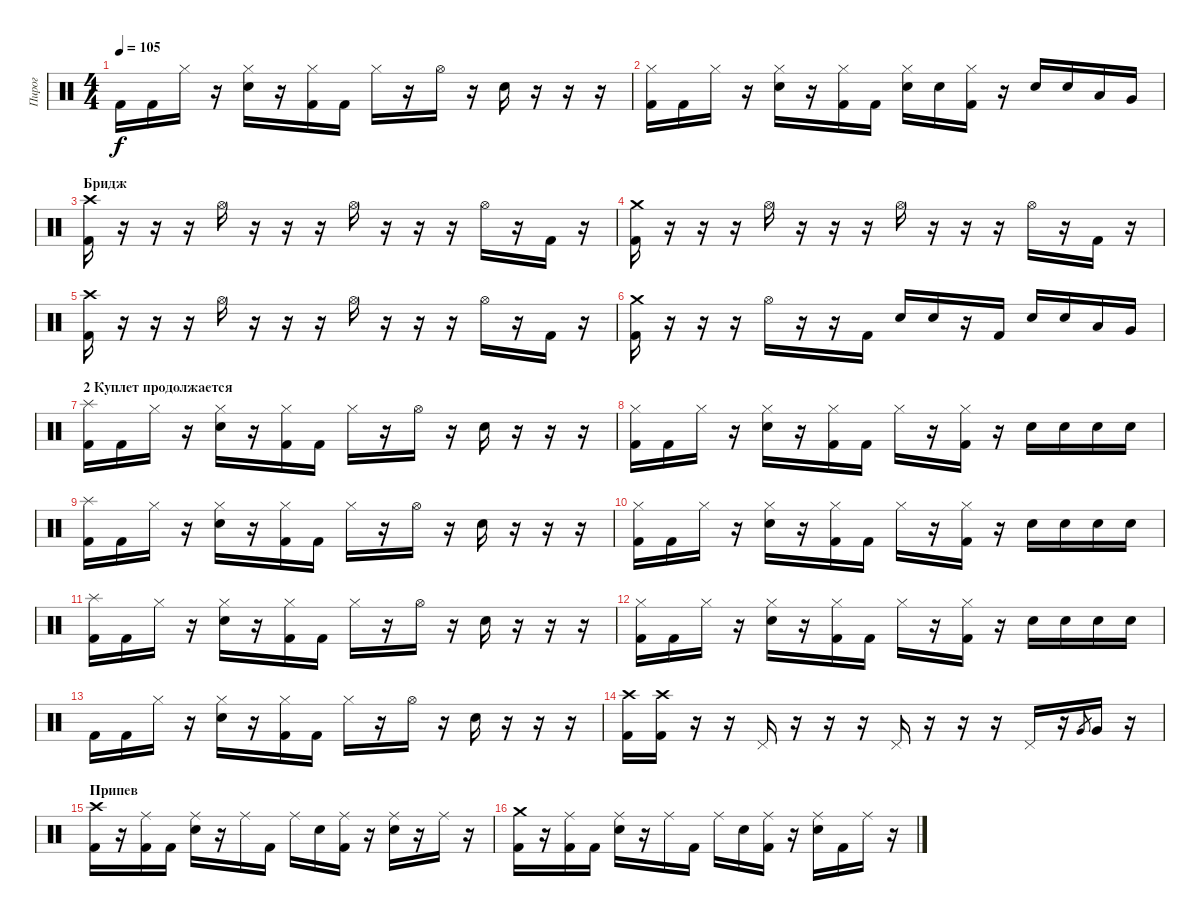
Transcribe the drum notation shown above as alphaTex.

\track ("Пирог" "Пирог") {instrument percussion}
\staff {score}
\articulation defaults
\ts (4 4)
\tempo 105
\clef neutral
\ks c "Kick (hit) 2".16{dy f} "Kick (hit) 2".16 "Hi-Hat (closed)".16
r.16 ("Hi-Hat (closed)" "Electric Snare (hit)").16 r.16 ("Hi-Hat (closed)" "Kick (hit) 2").16 "Kick (hit) 2".16 "Hi-Hat (closed)".16 r.16 "Hi-Hat (open)".16 r.16 "Electric Snare (hit)".16 r.16 r.16 r.16 |
("Hi-Hat (closed)" "Kick (hit) 2").16 "Kick (hit) 2".16 "Hi-Hat (closed)".16 r.16 ("Hi-Hat (closed)" "Electric Snare (hit)").16 r.16 ("Hi-Hat (closed)" "Kick (hit) 2").16 "Kick (hit) 2".16 ("Hi-Hat (closed)" "Electric Snare (hit)").16 "Electric Snare (hit)".16 ("Hi-Hat (closed)" "Kick (hit) 2").16 r.16 "Electric Snare (hit)".16 "Electric Snare (hit)".16 "Low Tom (hit)".16 "Very Low Tom (hit)".16 |
\section ("" "Бридж")
("Crash high (hit)" "Kick (hit) 2").16 r.16 r.16 r.16 "Hi-Hat (open)".16 r.16 r.16 r.16 "Hi-Hat (open)".16 r.16 r.16 r.16 "Hi-Hat (open)".16 r.16 "Kick (hit) 2".16 r.16 |
("Crash medium (hit)" "Kick (hit) 2").16 r.16 r.16 r.16 "Hi-Hat (open)".16 r.16 r.16 r.16 "Hi-Hat (open)".16 r.16 r.16 r.16 "Hi-Hat (open)".16 r.16 "Kick (hit) 2".16 r.16 |
("Crash high (hit)" "Kick (hit) 2").16 r.16 r.16 r.16 "Hi-Hat (open)".16 r.16 r.16 r.16 "Hi-Hat (open)".16 r.16 r.16 r.16 "Hi-Hat (open)".16 r.16 "Kick (hit) 2".16 r.16 |
("Crash medium (hit)" "Kick (hit) 2").16 r.16 r.16 r.16 "Hi-Hat (open)".16 r.16 r.16 "Kick (hit) 2".16 "Electric Snare (hit)".16 "Electric Snare (hit)".16 r.16 "Kick (hit) 2".16 "Electric Snare (hit)".16 "Electric Snare (hit)".16 "Low Tom (hit)".16 "Very Low Tom (hit)".16 |
\section ("" "2 Куплет продолжается")
("Splash (hit)" "Kick (hit) 2").16 "Kick (hit) 2".16 "Hi-Hat (closed)".16 r.16 ("Hi-Hat (closed)" "Electric Snare (hit)").16 r.16 ("Hi-Hat (closed)" "Kick (hit) 2").16 "Kick (hit) 2".16 "Hi-Hat (closed)".16 r.16 "Hi-Hat (open)".16 r.16 "Electric Snare (hit)".16 r.16 r.16 r.16 |
("Hi-Hat (closed)" "Kick (hit) 2").16 "Kick (hit) 2".16 "Hi-Hat (closed)".16 r.16 ("Hi-Hat (closed)" "Electric Snare (hit)").16 r.16 ("Hi-Hat (closed)" "Kick (hit) 2").16 "Kick (hit) 2".16 "Hi-Hat (closed)".16 r.16 ("Hi-Hat (closed)" "Kick (hit) 2").16 r.16 "Electric Snare (hit)".16 "Electric Snare (hit)".16 "Electric Snare (hit)".16 "Electric Snare (hit)".16 |
("Splash (hit)" "Kick (hit) 2").16 "Kick (hit) 2".16 "Hi-Hat (closed)".16 r.16 ("Hi-Hat (closed)" "Electric Snare (hit)").16 r.16 ("Hi-Hat (closed)" "Kick (hit) 2").16 "Kick (hit) 2".16 "Hi-Hat (closed)".16 r.16 "Hi-Hat (open)".16 r.16 "Electric Snare (hit)".16 r.16 r.16 r.16 |
("Hi-Hat (closed)" "Kick (hit) 2").16 "Kick (hit) 2".16 "Hi-Hat (closed)".16 r.16 ("Hi-Hat (closed)" "Electric Snare (hit)").16 r.16 ("Hi-Hat (closed)" "Kick (hit) 2").16 "Kick (hit) 2".16 "Hi-Hat (closed)".16 r.16 ("Hi-Hat (closed)" "Kick (hit) 2").16 r.16 "Electric Snare (hit)".16 "Electric Snare (hit)".16 "Electric Snare (hit)".16 "Electric Snare (hit)".16 |
("Splash (hit)" "Kick (hit) 2").16 "Kick (hit) 2".16 "Hi-Hat (closed)".16 r.16 ("Hi-Hat (closed)" "Electric Snare (hit)").16 r.16 ("Hi-Hat (closed)" "Kick (hit) 2").16 "Kick (hit) 2".16 "Hi-Hat (closed)".16 r.16 "Hi-Hat (open)".16 r.16 "Electric Snare (hit)".16 r.16 r.16 r.16 |
("Hi-Hat (closed)" "Kick (hit) 2").16 "Kick (hit) 2".16 "Hi-Hat (closed)".16 r.16 ("Hi-Hat (closed)" "Electric Snare (hit)").16 r.16 ("Hi-Hat (closed)" "Kick (hit) 2").16 "Kick (hit) 2".16 "Hi-Hat (closed)".16 r.16 ("Hi-Hat (closed)" "Kick (hit) 2").16 r.16 "Electric Snare (hit)".16 "Electric Snare (hit)".16 "Electric Snare (hit)".16 "Electric Snare (hit)".16 |
"Kick (hit) 2".16 "Kick (hit) 2".16 "Hi-Hat (closed)".16 r.16 ("Hi-Hat (closed)" "Electric Snare (hit)").16 r.16 ("Hi-Hat (closed)" "Kick (hit) 2").16 "Kick (hit) 2".16 "Hi-Hat (closed)".16 r.16 "Hi-Hat (open)".16 r.16 "Electric Snare (hit)".16 r.16 r.16 r.16 |
("Crash high (hit)" "Kick (hit) 2").16 ("Crash high (hit)" "Kick (hit) 2").16 r.16 r.16 "Pedal Hi-Hat (hit)".16 r.16 r.16 r.16 "Pedal Hi-Hat (hit)".16 r.16 r.16 r.16 "Pedal Hi-Hat (hit)".16 r.16 "Very Low Tom (hit)".8{gr} "Very Low Tom (hit)".16 r.16 |
\section ("" "Припев")
("Crash high (hit)" "Kick (hit) 2").16 r.16 ("Ride (middle)" "Kick (hit) 2").16 "Kick (hit) 2".16 ("Ride (middle)" "Electric Snare (hit)").16 r.16 "Ride (middle)".16 "Kick (hit) 2".16 "Ride (middle)".16 "Electric Snare (hit)".16 ("Ride (middle)" "Kick (hit) 2").16 r.16 ("Ride (middle)" "Electric Snare (hit)").16 r.16 "Ride (middle)".16 r.16 |
("Crash medium (hit)" "Kick (hit) 2").16 r.16 ("Ride (middle)" "Kick (hit) 2").16 "Kick (hit) 2".16 ("Ride (middle)" "Electric Snare (hit)").16 r.16 "Ride (middle)".16 "Kick (hit) 2".16 "Ride (middle)".16 "Electric Snare (hit)".16 ("Ride (middle)" "Kick (hit) 2").16 r.16 ("Ride (middle)" "Electric Snare (hit)").16 "Kick (hit) 2".16 "Ride (middle)".16 r.16
